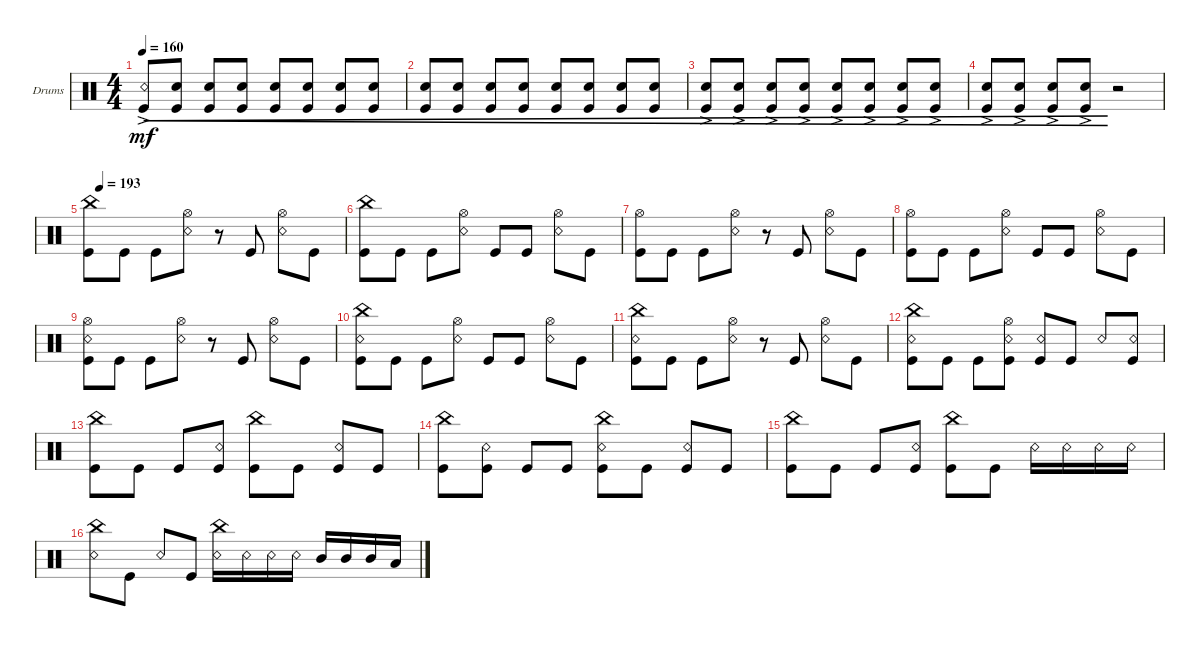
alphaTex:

\defaultSystemsLayout 4
\bracketExtendMode groupsimilarinstruments
\firstSystemTrackNameOrientation horizontal
\otherSystemsTrackNameOrientation horizontal
\track ("Drumkit" "Drums") {multiBarRest instrument percussion}
\staff {score}
\articulation defaults
\ts (4 4)
\tempo 160
\clef neutral
\ks c
("Snare (rim shot)"{ac} "Kick (hit)").8{cre dy mf} ("Kick (hit)" "Snare (hit) 2").8{cre} ("Kick (hit)" "Snare (hit) 2").8{cre} ("Kick (hit)" "Snare (hit) 2").8{cre} ("Kick (hit)" "Snare (hit) 2").8{cre} ("Kick (hit)" "Snare (hit) 2").8{cre} ("Kick (hit)" "Snare (hit) 2").8{cre} ("Kick (hit)" "Snare (hit) 2").8{cre} |
("Kick (hit)" "Snare (hit) 2").8{cre} ("Kick (hit)" "Snare (hit) 2").8{cre} ("Kick (hit)" "Snare (hit) 2").8{cre} ("Kick (hit)" "Snare (hit) 2").8{cre} ("Kick (hit)" "Snare (hit) 2").8{cre} ("Kick (hit)" "Snare (hit) 2").8{cre} ("Kick (hit)" "Snare (hit) 2").8{cre} ("Kick (hit)" "Snare (hit) 2").8{cre} |
("Kick (hit)"{ac} "Snare (hit) 2"{ac}).8{cre} ("Kick (hit)"{ac} "Snare (hit) 2"{ac}).8{cre} ("Kick (hit)"{ac} "Snare (hit) 2"{ac}).8{cre} ("Kick (hit)"{ac} "Snare (hit) 2"{ac}).8{cre} ("Snare (hit) 2"{ac} "Kick (hit)"{ac}).8{cre} ("Snare (hit) 2"{ac} "Kick (hit)"{ac}).8{cre} ("Snare (hit) 2"{ac} "Kick (hit)"{ac}).8{cre} ("Snare (hit) 2"{ac} "Kick (hit)"{ac}).8{cre} |
("Snare (hit) 2"{ac} "Kick (hit)"{ac}).8{cre} ("Snare (hit) 2"{ac} "Kick (hit)"{ac}).8{cre} ("Snare (hit) 2"{ac} "Kick (hit)"{ac}).8{cre} ("Snare (hit) 2"{ac} "Kick (hit)"{ac}).8{cre} r.2 |
\tempo (193 0.03125)
("Kick (hit)" "China (hit)").8 "Kick (hit)".8 "Kick (hit)".8 ("Snare (rim shot)" "Hi-Hat (open)").8 r.8 "Kick (hit)".8 ("Snare (rim shot)" "Hi-Hat (open)").8 "Kick (hit)".8 |
\scale
0.333333 ("Kick (hit)" "China (hit)").8 "Kick (hit)".8 "Kick (hit)".8 ("Snare (rim shot)" "Hi-Hat (open)").8 "Kick (hit)".8 "Kick (hit)".8 ("Snare (rim shot)" "Hi-Hat (open)").8 "Kick (hit)".8 |
\scale
0.333333 ("Hi-Hat (open)" "Kick (hit)").8 "Kick (hit)".8 "Kick (hit)".8 ("Snare (rim shot)" "Hi-Hat (open)").8 r.8 "Kick (hit)".8 ("Snare (rim shot)" "Hi-Hat (open)").8 "Kick (hit)".8 |
\scale
0.333333 ("Kick (hit)" "Hi-Hat (open)").8 "Kick (hit)".8 "Kick (hit)".8 ("Snare (rim shot)" "Hi-Hat (open)").8 "Kick (hit)".8 "Kick (hit)".8 ("Snare (rim shot)" "Hi-Hat (open)").8 "Kick (hit)".8 |
\scale
0.333333 ("Hi-Hat (open)" "Kick (hit)" "Snare (rim shot)").8 "Kick (hit)".8 "Kick (hit)".8 ("Snare (rim shot)" "Hi-Hat (open)").8 r.8 "Kick (hit)".8 ("Snare (rim shot)" "Hi-Hat (open)").8 "Kick (hit)".8 |
\scale
0.333333 ("Kick (hit)" "Snare (rim shot)" "China (hit)").8 "Kick (hit)".8 "Kick (hit)".8 ("Snare (rim shot)" "Hi-Hat (open)").8 "Kick (hit)".8 "Kick (hit)".8 ("Snare (rim shot)" "Hi-Hat (open)").8 "Kick (hit)".8 |
\scale
0.333333 ("Kick (hit)" "China (hit)" "Snare (rim shot)").8 "Kick (hit)".8 "Kick (hit)".8 ("Snare (rim shot)" "Hi-Hat (open)").8 r.8 "Kick (hit)".8 ("Snare (rim shot)" "Hi-Hat (open)").8 "Kick (hit)".8 |
\scale
0.333333 ("Kick (hit)" "Snare (rim shot)" "China (hit)").8 "Kick (hit)".8 "Kick (hit)".8 ("Hi-Hat (open)" "Kick (hit)" "Snare (rim shot)").8 ("Kick (hit)" "Snare (rim shot)").8 "Kick (hit)".8 "Snare (rim shot)".8 ("Kick (hit)" "Snare (rim shot)").8 |
\scale
0.333333 ("Kick (hit)" "China (hit)").8 "Kick (hit)".8 "Kick (hit)".8 ("Kick (hit)" "Snare (rim shot)").8 ("Kick (hit)" "China (hit)").8 "Kick (hit)".8 ("Kick (hit)" "Snare (rim shot)").8 "Kick (hit)".8 |
\scale
0.333333 ("Kick (hit)" "China (hit)").8 ("Snare (rim shot)" "Kick (hit)").8 "Kick (hit)".8 "Kick (hit)".8 ("Kick (hit)" "Snare (rim shot)" "China (hit)").8 "Kick (hit)".8 ("Kick (hit)" "Snare (rim shot)").8 "Kick (hit)".8 |
\scale
0.333333 ("Kick (hit)" "China (hit)").8 "Kick (hit)".8 "Kick (hit)".8 ("Kick (hit)" "Snare (rim shot)").8 ("Kick (hit)" "China (hit)").8 "Kick (hit)".8 "Snare (rim shot)".16 "Snare (rim shot)".16 "Snare (rim shot)".16 "Snare (rim shot)".16 |
\scale
0.333333 ("China (hit)" "Snare (rim shot)").8 "Kick (hit)".8 "Snare (rim shot)".8 "Kick (hit)".8 ("Snare (rim shot)" "China (hit)").16 "Snare (rim shot)".16 "Snare (rim shot)".16 "Snare (rim shot)".16 "Mid Tom (hit)".16 "Mid Tom (hit)".16 "Mid Tom (hit)".16 "Low Tom (hit)".16
